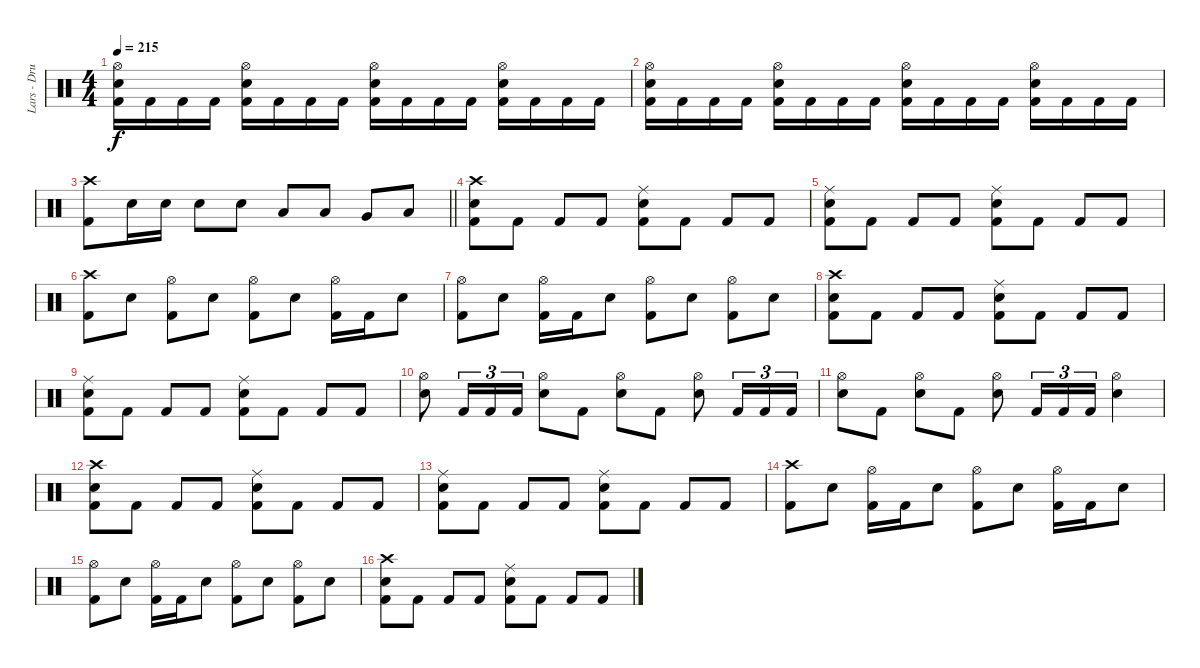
\track ("Lars - Drums" "Lars - Dru") {instrument percussion}
\staff {score}
\articulation defaults
\ts (4 4)
\tempo 215
\clef neutral
\ks c
("Kick (hit) 2" "Electric Snare (hit)" "Hi-Hat (open)").16{dy f} "Kick (hit) 2".16 "Kick (hit) 2".16 "Kick (hit) 2".16 ("Kick (hit) 2" "Electric Snare (hit)" "Hi-Hat (open)").16 "Kick (hit) 2".16 "Kick (hit) 2".16 "Kick (hit) 2".16 ("Kick (hit) 2" "Electric Snare (hit)" "Hi-Hat (open)").16 "Kick (hit) 2".16 "Kick (hit) 2".16 "Kick (hit) 2".16 ("Kick (hit) 2" "Electric Snare (hit)" "Hi-Hat (open)").16 "Kick (hit) 2".16 "Kick (hit) 2".16 "Kick (hit) 2".16 |
("Kick (hit) 2" "Electric Snare (hit)" "Hi-Hat (open)").16 "Kick (hit) 2".16 "Kick (hit) 2".16 "Kick (hit) 2".16 ("Kick (hit) 2" "Electric Snare (hit)" "Hi-Hat (open)").16 "Kick (hit) 2".16 "Kick (hit) 2".16 "Kick (hit) 2".16 ("Kick (hit) 2" "Electric Snare (hit)" "Hi-Hat (open)").16 "Kick (hit) 2".16 "Kick (hit) 2".16 "Kick (hit) 2".16 ("Kick (hit) 2" "Electric Snare (hit)" "Hi-Hat (open)").16 "Kick (hit) 2".16 "Kick (hit) 2".16 "Kick (hit) 2".16 |
\barLineRight lightlight
("Kick (hit) 2" "Crash high (hit)").8 "Electric Snare (hit)".16 "Electric Snare (hit)".16 "Electric Snare (hit)".8 "Electric Snare (hit)".8 "Low Tom (hit)".8 "Low Tom (hit)".8 "Very Low Tom (hit)".8 "Low Floor Tom (hit)".8 |
\section ("" "")
("Kick (hit) 2" "Electric Snare (hit)" "Crash high (hit)").8 "Kick (hit) 2".8 "Kick (hit) 2".8 "Kick (hit) 2".8 ("Kick (hit) 2" "Electric Snare (hit)" "Ride (middle)").8 "Kick (hit) 2".8 "Kick (hit) 2".8 "Kick (hit) 2".8 |
("Kick (hit) 2" "Electric Snare (hit)" "Ride (middle)").8 "Kick (hit) 2".8 "Kick (hit) 2".8 "Kick (hit) 2".8 ("Kick (hit) 2" "Electric Snare (hit)" "Ride (middle)").8 "Kick (hit) 2".8 "Kick (hit) 2".8 "Kick (hit) 2".8 |
("Kick (hit) 2" "Crash high (hit)").8 "Electric Snare (hit)".8 ("Kick (hit) 2" "Hi-Hat (open)").8 "Electric Snare (hit)".8 ("Kick (hit) 2" "Hi-Hat (open)").8 "Electric Snare (hit)".8 ("Kick (hit) 2" "Hi-Hat (open)").16 "Kick (hit) 2".16 "Electric Snare (hit)".8 |
("Kick (hit) 2" "Hi-Hat (open)").8 "Electric Snare (hit)".8 ("Kick (hit) 2" "Hi-Hat (open)").16 "Kick (hit) 2".16 "Electric Snare (hit)".8 ("Kick (hit) 2" "Hi-Hat (open)").8 "Electric Snare (hit)".8 ("Kick (hit) 2" "Hi-Hat (open)").8 "Electric Snare (hit)".8 |
("Kick (hit) 2" "Electric Snare (hit)" "Crash high (hit)").8 "Kick (hit) 2".8 "Kick (hit) 2".8 "Kick (hit) 2".8 ("Kick (hit) 2" "Electric Snare (hit)" "Ride (middle)").8 "Kick (hit) 2".8 "Kick (hit) 2".8 "Kick (hit) 2".8 |
("Kick (hit) 2" "Electric Snare (hit)" "Ride (middle)").8 "Kick (hit) 2".8 "Kick (hit) 2".8 "Kick (hit) 2".8 ("Kick (hit) 2" "Electric Snare (hit)" "Ride (middle)").8 "Kick (hit) 2".8 "Kick (hit) 2".8 "Kick (hit) 2".8 |
("Electric Snare (hit)" "Hi-Hat (open)").8 "Kick (hit) 2".16{tu (3 2)} "Kick (hit) 2".16{tu (3 2)} "Kick (hit) 2".16{tu (3 2)} ("Electric Snare (hit)" "Hi-Hat (open)").8 "Kick (hit) 2".8 ("Electric Snare (hit)" "Hi-Hat (open)").8 "Kick (hit) 2".8 ("Electric Snare (hit)" "Hi-Hat (open)").8 "Kick (hit) 2".16{tu (3 2)} "Kick (hit) 2".16{tu (3 2)} "Kick (hit) 2".16{tu (3 2)} |
("Electric Snare (hit)" "Hi-Hat (open)").8 "Kick (hit) 2".8 ("Electric Snare (hit)" "Hi-Hat (open)").8 "Kick (hit) 2".8 ("Electric Snare (hit)" "Hi-Hat (open)").8 "Kick (hit) 2".16{tu (3 2)} "Kick (hit) 2".16{tu (3 2)} "Kick (hit) 2".16{tu (3 2)} ("Electric Snare (hit)" "Hi-Hat (open)").4 |
("Kick (hit) 2" "Electric Snare (hit)" "Crash high (hit)").8 "Kick (hit) 2".8 "Kick (hit) 2".8 "Kick (hit) 2".8 ("Kick (hit) 2" "Electric Snare (hit)" "Ride (middle)").8 "Kick (hit) 2".8 "Kick (hit) 2".8 "Kick (hit) 2".8 |
("Kick (hit) 2" "Electric Snare (hit)" "Ride (middle)").8 "Kick (hit) 2".8 "Kick (hit) 2".8 "Kick (hit) 2".8 ("Kick (hit) 2" "Electric Snare (hit)" "Ride (middle)").8 "Kick (hit) 2".8 "Kick (hit) 2".8 "Kick (hit) 2".8 |
("Kick (hit) 2" "Crash high (hit)").8 "Electric Snare (hit)".8 ("Kick (hit) 2" "Hi-Hat (open)").16 "Kick (hit) 2".16 "Electric Snare (hit)".8 ("Kick (hit) 2" "Hi-Hat (open)").8 "Electric Snare (hit)".8 ("Kick (hit) 2" "Hi-Hat (open)").16 "Kick (hit) 2".16 "Electric Snare (hit)".8 |
("Kick (hit) 2" "Hi-Hat (open)").8 "Electric Snare (hit)".8 ("Kick (hit) 2" "Hi-Hat (open)").16 "Kick (hit) 2".16 "Electric Snare (hit)".8 ("Kick (hit) 2" "Hi-Hat (open)").8 "Electric Snare (hit)".8 ("Kick (hit) 2" "Hi-Hat (open)").8 "Electric Snare (hit)".8 |
("Kick (hit) 2" "Electric Snare (hit)" "Crash high (hit)").8 "Kick (hit) 2".8 "Kick (hit) 2".8 "Kick (hit) 2".8 ("Kick (hit) 2" "Electric Snare (hit)" "Ride (middle)").8 "Kick (hit) 2".8 "Kick (hit) 2".8 "Kick (hit) 2".8
